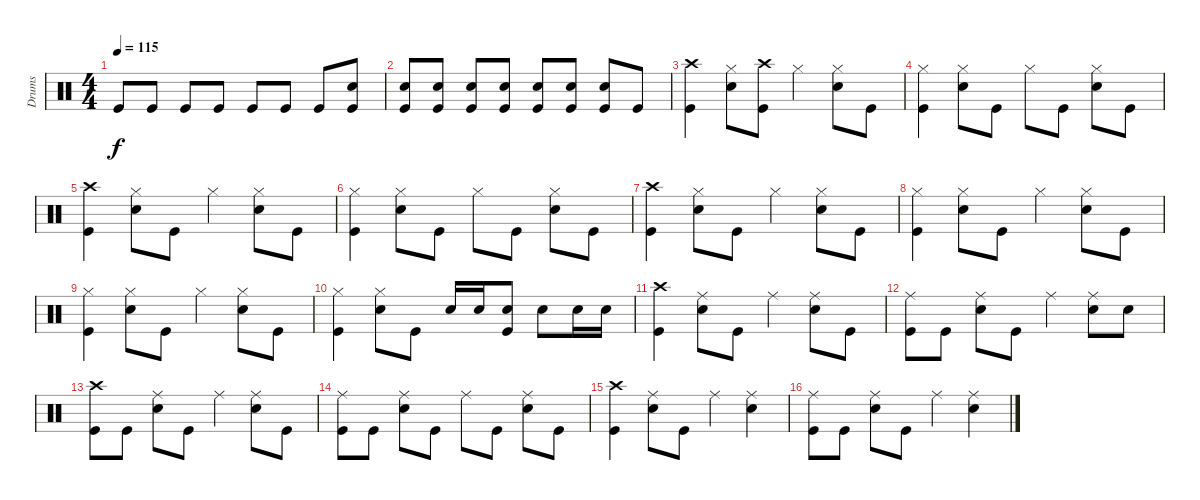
\track ("Drums" "Drums") {instrument percussion}
\staff {score}
\articulation defaults
\ts (4 4)
\tempo 115
\clef neutral
\ks c "Kick (hit)".8{dy f} "Kick (hit)".8 "Kick (hit)".8 "Kick (hit)".8 "Kick (hit)".8 "Kick (hit)".8 "Kick (hit)".8
("Kick (hit)" "Snare (hit) 2").8 |
("Kick (hit)" "Snare (hit) 2").8 ("Kick (hit)" "Snare (hit) 2").8 ("Kick (hit)" "Snare (hit) 2").8 ("Kick (hit)" "Snare (hit) 2").8 ("Kick (hit)" "Snare (hit) 2").8 ("Kick (hit)" "Snare (hit) 2").8 ("Kick (hit)" "Snare (hit) 2").8 "Kick (hit)".8 |
("Crash high (hit)" "Kick (hit)").4 ("Hi-Hat (closed)" "Snare (hit) 2").8 ("Crash high (hit)" "Kick (hit)").8 "Hi-Hat (closed)".4 ("Hi-Hat (closed)" "Snare (hit) 2").8 "Kick (hit)".8 |
("Hi-Hat (closed)" "Kick (hit)").4 ("Hi-Hat (closed)" "Snare (hit) 2").8 "Kick (hit)".8 "Hi-Hat (closed)".8 "Kick (hit)".8 ("Hi-Hat (closed)" "Snare (hit) 2").8 "Kick (hit)".8 |
("Crash high (hit)" "Kick (hit)").4 ("Hi-Hat (closed)" "Snare (hit) 2").8 "Kick (hit)".8 "Hi-Hat (closed)".4 ("Hi-Hat (closed)" "Snare (hit) 2").8 "Kick (hit)".8 |
("Hi-Hat (closed)" "Kick (hit)").4 ("Hi-Hat (closed)" "Snare (hit) 2").8 "Kick (hit)".8 "Hi-Hat (closed)".8 "Kick (hit)".8 ("Hi-Hat (closed)" "Snare (hit) 2").8 "Kick (hit)".8 |
("Crash high (hit)" "Kick (hit)").4 ("Hi-Hat (closed)" "Snare (hit) 2").8 "Kick (hit)".8 "Hi-Hat (closed)".4 ("Hi-Hat (closed)" "Snare (hit) 2").8 "Kick (hit)".8 |
("Hi-Hat (closed)" "Kick (hit)").4 ("Hi-Hat (closed)" "Snare (hit) 2").8 "Kick (hit)".8 "Hi-Hat (closed)".4 ("Hi-Hat (closed)" "Snare (hit) 2").8 "Kick (hit)".8 |
("Hi-Hat (closed)" "Kick (hit)").4 ("Hi-Hat (closed)" "Snare (hit) 2").8 "Kick (hit)".8 "Hi-Hat (closed)".4 ("Hi-Hat (closed)" "Snare (hit) 2").8 "Kick (hit)".8 |
("Hi-Hat (closed)" "Kick (hit)").4 ("Hi-Hat (closed)" "Snare (hit) 2").8 "Kick (hit)".8 "Snare (hit) 2".16 "Snare (hit) 2".16 ("Snare (hit) 2" "Kick (hit)").8 "Snare (hit) 2".8 "Snare (hit) 2".16 "Snare (hit) 2".16 |
("Crash high (hit)" "Kick (hit)").4 ("Ride (middle)" "Snare (hit) 2").8 "Kick (hit)".8 "Ride (middle)".4 ("Ride (middle)" "Snare (hit) 2").8 "Kick (hit)".8 |
("Ride (middle)" "Kick (hit)").8 "Kick (hit)".8 ("Ride (middle)" "Snare (hit) 2").8 "Kick (hit)".8 "Ride (middle)".4 ("Ride (middle)" "Snare (hit) 2").8 "Snare (hit) 2".8 |
("Crash high (hit)" "Kick (hit)").8 "Kick (hit)".8 ("Ride (middle)" "Snare (hit) 2").8 "Kick (hit)".8 "Ride (middle)".4 ("Ride (middle)" "Snare (hit) 2").8 "Kick (hit)".8 |
("Ride (middle)" "Kick (hit)").8 "Kick (hit)".8 ("Ride (middle)" "Snare (hit) 2").8 "Kick (hit)".8 "Ride (middle)".8 "Kick (hit)".8 ("Ride (middle)" "Snare (hit) 2").8 "Kick (hit)".8 |
("Crash high (hit)" "Kick (hit)").4 ("Ride (middle)" "Snare (hit) 2").8 "Kick (hit)".8 "Ride (middle)".4 ("Ride (middle)" "Snare (hit) 2").4 |
("Ride (middle)" "Kick (hit)").8 "Kick (hit)".8 ("Ride (middle)" "Snare (hit) 2").8 "Kick (hit)".8 "Ride (middle)".4 ("Ride (middle)" "Snare (hit) 2").4
